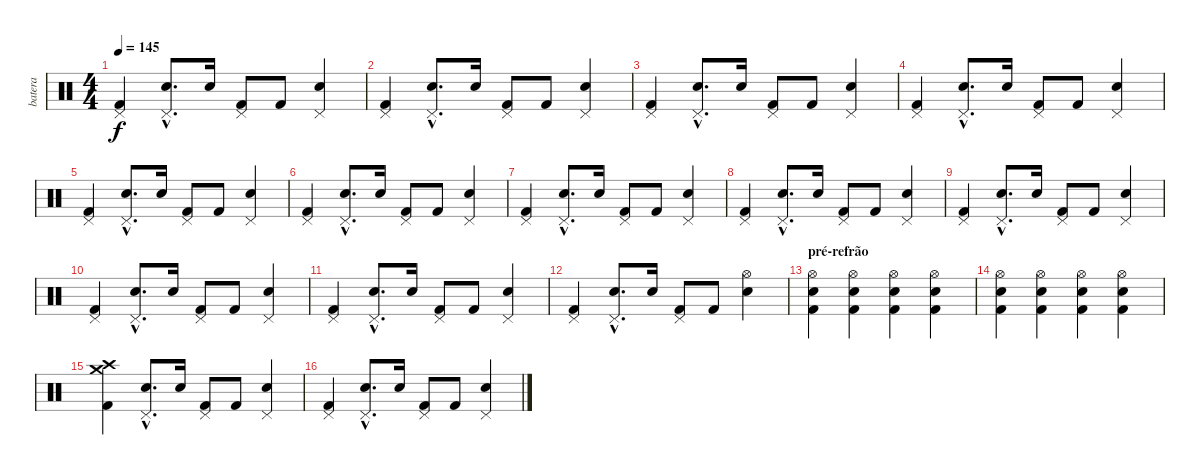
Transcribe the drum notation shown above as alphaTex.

\track ("batera" "batera") {instrument percussion}
\staff {score}
\articulation defaults
\ts (4 4)
\tempo 145
\clef neutral
\ks c
("Kick (hit) 2" "Pedal Hi-Hat (hit)").4{dy f} ("Snare (hit) 2"{hac} "Pedal Hi-Hat (hit)"{hac}).8{d} "Snare (hit) 2".16 ("Kick (hit) 2" "Pedal Hi-Hat (hit)").8 "Kick (hit) 2".8 ("Snare (hit) 2" "Pedal Hi-Hat (hit)").4 |
("Kick (hit) 2" "Pedal Hi-Hat (hit)").4 ("Snare (hit) 2"{hac} "Pedal Hi-Hat (hit)"{hac}).8{d} "Snare (hit) 2".16 ("Kick (hit) 2" "Pedal Hi-Hat (hit)").8 "Kick (hit) 2".8 ("Snare (hit) 2" "Pedal Hi-Hat (hit)").4 |
("Kick (hit) 2" "Pedal Hi-Hat (hit)").4 ("Snare (hit) 2"{hac} "Pedal Hi-Hat (hit)"{hac}).8{d} "Snare (hit) 2".16 ("Kick (hit) 2" "Pedal Hi-Hat (hit)").8 "Kick (hit) 2".8 ("Snare (hit) 2" "Pedal Hi-Hat (hit)").4 |
("Kick (hit) 2" "Pedal Hi-Hat (hit)").4 ("Snare (hit) 2"{hac} "Pedal Hi-Hat (hit)"{hac}).8{d} "Snare (hit) 2".16 ("Kick (hit) 2" "Pedal Hi-Hat (hit)").8 "Kick (hit) 2".8 ("Snare (hit) 2" "Pedal Hi-Hat (hit)").4 |
("Kick (hit) 2" "Pedal Hi-Hat (hit)").4 ("Snare (hit) 2"{hac} "Pedal Hi-Hat (hit)"{hac}).8{d} "Snare (hit) 2".16 ("Kick (hit) 2" "Pedal Hi-Hat (hit)").8 "Kick (hit) 2".8 ("Snare (hit) 2" "Pedal Hi-Hat (hit)").4 |
("Kick (hit) 2" "Pedal Hi-Hat (hit)").4 ("Snare (hit) 2"{hac} "Pedal Hi-Hat (hit)"{hac}).8{d} "Snare (hit) 2".16 ("Kick (hit) 2" "Pedal Hi-Hat (hit)").8 "Kick (hit) 2".8 ("Snare (hit) 2" "Pedal Hi-Hat (hit)").4 |
("Kick (hit) 2" "Pedal Hi-Hat (hit)").4 ("Snare (hit) 2"{hac} "Pedal Hi-Hat (hit)"{hac}).8{d} "Snare (hit) 2".16 ("Kick (hit) 2" "Pedal Hi-Hat (hit)").8 "Kick (hit) 2".8 ("Snare (hit) 2" "Pedal Hi-Hat (hit)").4 |
("Kick (hit) 2" "Pedal Hi-Hat (hit)").4 ("Snare (hit) 2"{hac} "Pedal Hi-Hat (hit)"{hac}).8{d} "Snare (hit) 2".16 ("Kick (hit) 2" "Pedal Hi-Hat (hit)").8 "Kick (hit) 2".8 ("Snare (hit) 2" "Pedal Hi-Hat (hit)").4 |
("Kick (hit) 2" "Pedal Hi-Hat (hit)").4 ("Snare (hit) 2"{hac} "Pedal Hi-Hat (hit)"{hac}).8{d} "Snare (hit) 2".16 ("Kick (hit) 2" "Pedal Hi-Hat (hit)").8 "Kick (hit) 2".8 ("Snare (hit) 2" "Pedal Hi-Hat (hit)").4 |
("Kick (hit) 2" "Pedal Hi-Hat (hit)").4 ("Snare (hit) 2"{hac} "Pedal Hi-Hat (hit)"{hac}).8{d} "Snare (hit) 2".16 ("Kick (hit) 2" "Pedal Hi-Hat (hit)").8 "Kick (hit) 2".8 ("Snare (hit) 2" "Pedal Hi-Hat (hit)").4 |
("Kick (hit) 2" "Pedal Hi-Hat (hit)").4 ("Snare (hit) 2"{hac} "Pedal Hi-Hat (hit)"{hac}).8{d} "Snare (hit) 2".16 ("Kick (hit) 2" "Pedal Hi-Hat (hit)").8 "Kick (hit) 2".8 ("Snare (hit) 2" "Pedal Hi-Hat (hit)").4 |
("Kick (hit) 2" "Pedal Hi-Hat (hit)").4 ("Snare (hit) 2"{hac} "Pedal Hi-Hat (hit)"{hac}).8{d} "Snare (hit) 2".16 ("Kick (hit) 2" "Pedal Hi-Hat (hit)").8 "Kick (hit) 2".8 ("Snare (hit) 2" "Hi-Hat (open)").4 |
\section ("" "pré-refrão")
("Snare (hit) 2" "Kick (hit) 2" "Hi-Hat (open)").4 ("Snare (hit) 2" "Kick (hit) 2" "Hi-Hat (open)").4 ("Snare (hit) 2" "Kick (hit) 2" "Hi-Hat (open)").4 ("Snare (hit) 2" "Kick (hit) 2" "Hi-Hat (open)").4 |
("Snare (hit) 2" "Kick (hit) 2" "Hi-Hat (open)").4 ("Snare (hit) 2" "Kick (hit) 2" "Hi-Hat (open)").4 ("Snare (hit) 2" "Kick (hit) 2" "Hi-Hat (open)").4 ("Snare (hit) 2" "Kick (hit) 2" "Hi-Hat (open)").4 |
("Crash high (hit)" "Crash medium (hit)" "Kick (hit) 2").4 ("Snare (hit) 2"{hac} "Pedal Hi-Hat (hit)"{hac}).8{d} "Snare (hit) 2".16 ("Kick (hit) 2" "Pedal Hi-Hat (hit)").8 "Kick (hit) 2".8 ("Snare (hit) 2" "Pedal Hi-Hat (hit)").4 |
("Kick (hit) 2" "Pedal Hi-Hat (hit)").4 ("Snare (hit) 2"{hac} "Pedal Hi-Hat (hit)"{hac}).8{d} "Snare (hit) 2".16 ("Kick (hit) 2" "Pedal Hi-Hat (hit)").8 "Kick (hit) 2".8 ("Snare (hit) 2" "Pedal Hi-Hat (hit)").4
